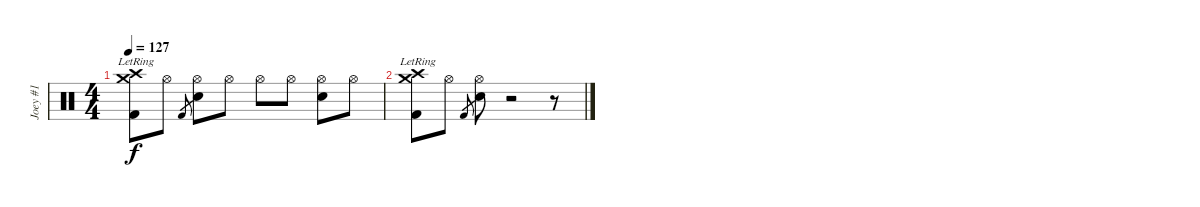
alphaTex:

\track ("Joey #1" "Joey #1") {instrument percussion}
\staff {score}
\articulation defaults
\ts (4 4)
\tempo 127
\clef neutral
\ks c
("Crash medium (hit)"{lr} "Crash high (hit)"{lr} "Kick (hit) 2").8{dy f} "Hi-Hat (open)".8 "Kick (hit) 2"{sl}.8{gr} ("Hi-Hat (open)" "Electric Snare (hit)").8 "Hi-Hat (open)".8 "Hi-Hat (open)".8 "Hi-Hat (open)".8 ("Hi-Hat (open)" "Electric Snare (hit)").8 "Hi-Hat (open)".8 |
("Crash medium (hit)"{lr} "Crash high (hit)"{lr} "Kick (hit) 2").8 "Hi-Hat (open)".8 "Kick (hit) 2"{sl}.8{gr} ("Hi-Hat (open)" "Electric Snare (hit)").8 r.2 r.8
